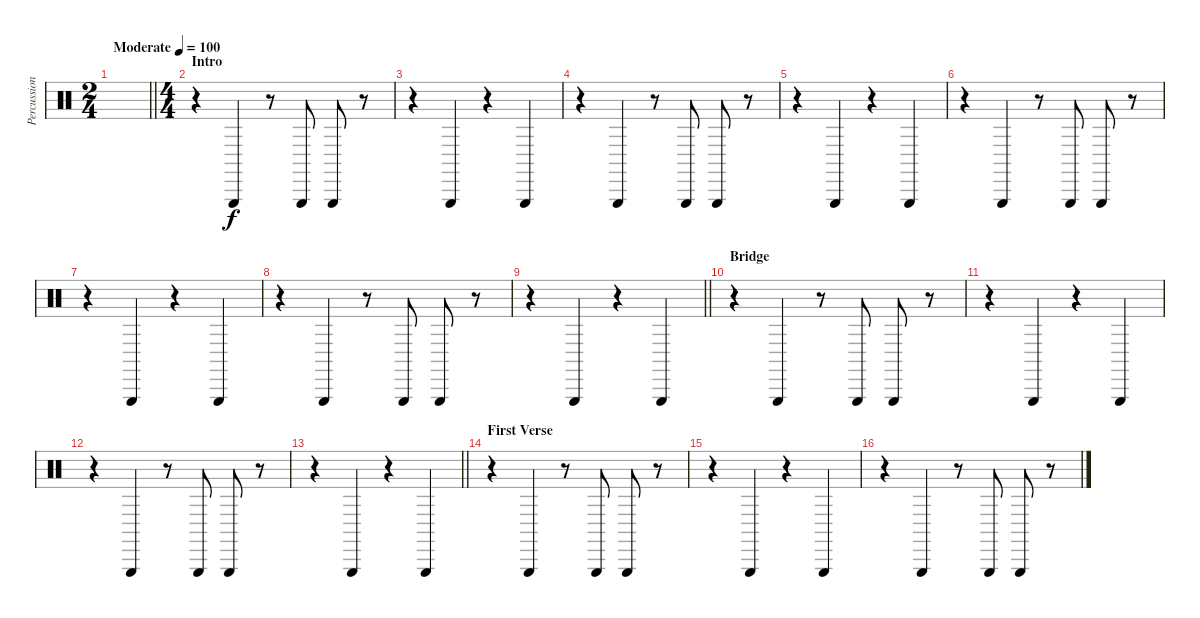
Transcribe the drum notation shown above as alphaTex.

\track ("Percussion - Joe Plummer" "Percussion") {instrument percussion}
\staff {score}
\articulation defaults
\ts (2 4)
\tempo (100 "Moderate")
\clef neutral
\barLineRight lightlight
\ks c
|
\ts (4 4)
\section ("" "Intro")
r.4 "Triangle (hit)".4 r.8 "Triangle (hit)".8 "Triangle (hit)".8 r.8 |
r.4 "Triangle (hit)".4 r.4 "Triangle (hit)".4 |
r.4 "Triangle (hit)".4 r.8 "Triangle (hit)".8 "Triangle (hit)".8 r.8 |
r.4 "Triangle (hit)".4 r.4 "Triangle (hit)".4 |
r.4 "Triangle (hit)".4 r.8 "Triangle (hit)".8 "Triangle (hit)".8 r.8 |
r.4 "Triangle (hit)".4 r.4 "Triangle (hit)".4 |
r.4 "Triangle (hit)".4 r.8 "Triangle (hit)".8 "Triangle (hit)".8 r.8 |
\barLineRight lightlight
r.4 "Triangle (hit)".4 r.4 "Triangle (hit)".4 |
\section ("" "Bridge")
r.4 "Triangle (hit)".4 r.8 "Triangle (hit)".8 "Triangle (hit)".8 r.8 |
r.4 "Triangle (hit)".4 r.4 "Triangle (hit)".4 |
r.4 "Triangle (hit)".4 r.8 "Triangle (hit)".8 "Triangle (hit)".8 r.8 |
\barLineRight lightlight
r.4 "Triangle (hit)".4 r.4 "Triangle (hit)".4 |
\section ("" "First Verse")
r.4 "Triangle (hit)".4 r.8 "Triangle (hit)".8 "Triangle (hit)".8 r.8 |
r.4 "Triangle (hit)".4 r.4 "Triangle (hit)".4 |
r.4 "Triangle (hit)".4 r.8 "Triangle (hit)".8 "Triangle (hit)".8 r.8
